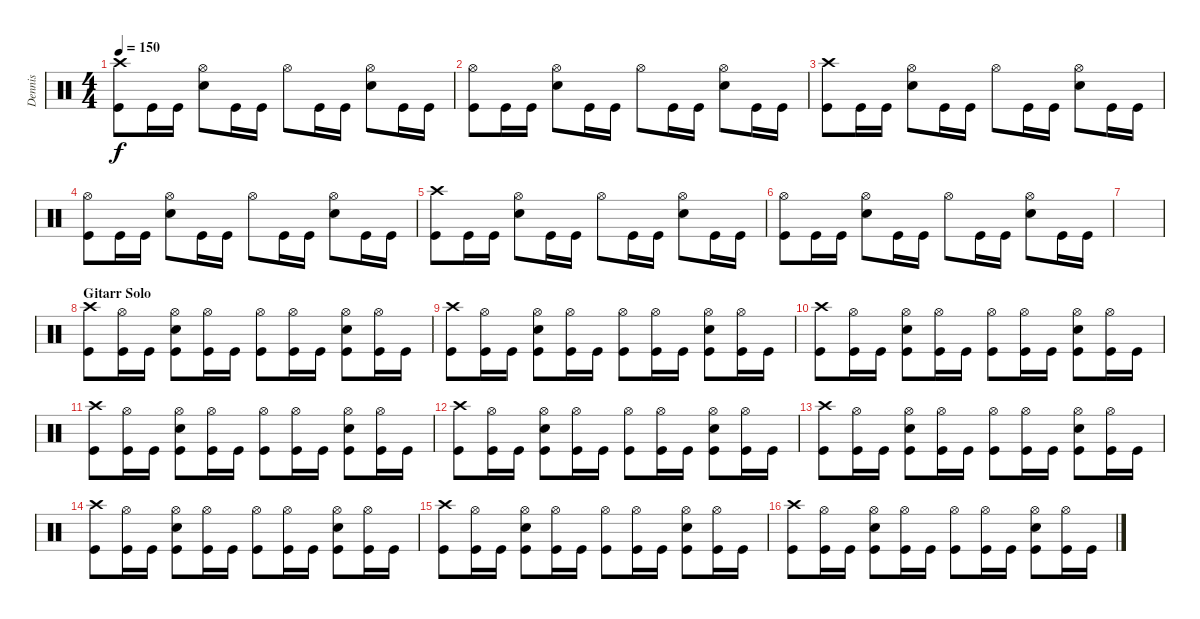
\track ("Dennis" "Dennis") {instrument percussion}
\staff {score}
\articulation defaults
\ts (4 4)
\tempo 150
\clef neutral
\ks c
("Crash high (hit)" "Kick (hit)").8{dy f} "Kick (hit)".16 "Kick (hit)".16 ("Hi-Hat (open)" "Snare (hit) 2").8 "Kick (hit)".16 "Kick (hit)".16 "Hi-Hat (open)".8 "Kick (hit)".16 "Kick (hit)".16 ("Hi-Hat (open)" "Snare (hit) 2").8 "Kick (hit)".16 "Kick (hit)".16 |
("Hi-Hat (open)" "Kick (hit)").8 "Kick (hit)".16 "Kick (hit)".16 ("Hi-Hat (open)" "Snare (hit) 2").8 "Kick (hit)".16 "Kick (hit)".16 "Hi-Hat (open)".8 "Kick (hit)".16 "Kick (hit)".16 ("Hi-Hat (open)" "Snare (hit) 2").8 "Kick (hit)".16 "Kick (hit)".16 |
("Crash high (hit)" "Kick (hit)").8 "Kick (hit)".16 "Kick (hit)".16 ("Hi-Hat (open)" "Snare (hit) 2").8 "Kick (hit)".16 "Kick (hit)".16 "Hi-Hat (open)".8 "Kick (hit)".16 "Kick (hit)".16 ("Hi-Hat (open)" "Snare (hit) 2").8 "Kick (hit)".16 "Kick (hit)".16 |
("Hi-Hat (open)" "Kick (hit)").8 "Kick (hit)".16 "Kick (hit)".16 ("Hi-Hat (open)" "Snare (hit) 2").8 "Kick (hit)".16 "Kick (hit)".16 "Hi-Hat (open)".8 "Kick (hit)".16 "Kick (hit)".16 ("Hi-Hat (open)" "Snare (hit) 2").8 "Kick (hit)".16 "Kick (hit)".16 |
("Crash high (hit)" "Kick (hit)").8 "Kick (hit)".16 "Kick (hit)".16 ("Hi-Hat (open)" "Snare (hit) 2").8 "Kick (hit)".16 "Kick (hit)".16 "Hi-Hat (open)".8 "Kick (hit)".16 "Kick (hit)".16 ("Hi-Hat (open)" "Snare (hit) 2").8 "Kick (hit)".16 "Kick (hit)".16 |
("Hi-Hat (open)" "Kick (hit)").8 "Kick (hit)".16 "Kick (hit)".16 ("Hi-Hat (open)" "Snare (hit) 2").8 "Kick (hit)".16 "Kick (hit)".16 "Hi-Hat (open)".8 "Kick (hit)".16 "Kick (hit)".16 ("Hi-Hat (open)" "Snare (hit) 2").8 "Kick (hit)".16 "Kick (hit)".16 |
|
\section ("" "Gitarr Solo")
("Crash high (hit)" "Kick (hit)").8 ("Hi-Hat (open)" "Kick (hit)").16 "Kick (hit)".16 ("Hi-Hat (open)" "Kick (hit)" "Snare (hit) 2").8 ("Hi-Hat (open)" "Kick (hit)").16 "Kick (hit)".16 ("Hi-Hat (open)" "Kick (hit)").8 ("Hi-Hat (open)" "Kick (hit)").16 "Kick (hit)".16 ("Hi-Hat (open)" "Kick (hit)" "Snare (hit) 2").8 ("Hi-Hat (open)" "Kick (hit)").16 "Kick (hit)".16 |
("Crash high (hit)" "Kick (hit)").8 ("Hi-Hat (open)" "Kick (hit)").16 "Kick (hit)".16 ("Hi-Hat (open)" "Kick (hit)" "Snare (hit) 2").8 ("Hi-Hat (open)" "Kick (hit)").16 "Kick (hit)".16 ("Hi-Hat (open)" "Kick (hit)").8 ("Hi-Hat (open)" "Kick (hit)").16 "Kick (hit)".16 ("Hi-Hat (open)" "Kick (hit)" "Snare (hit) 2").8 ("Hi-Hat (open)" "Kick (hit)").16 "Kick (hit)".16 |
("Crash high (hit)" "Kick (hit)").8 ("Hi-Hat (open)" "Kick (hit)").16 "Kick (hit)".16 ("Hi-Hat (open)" "Kick (hit)" "Snare (hit) 2").8 ("Hi-Hat (open)" "Kick (hit)").16 "Kick (hit)".16 ("Hi-Hat (open)" "Kick (hit)").8 ("Hi-Hat (open)" "Kick (hit)").16 "Kick (hit)".16 ("Hi-Hat (open)" "Kick (hit)" "Snare (hit) 2").8 ("Hi-Hat (open)" "Kick (hit)").16 "Kick (hit)".16 |
("Crash high (hit)" "Kick (hit)").8 ("Hi-Hat (open)" "Kick (hit)").16 "Kick (hit)".16 ("Hi-Hat (open)" "Kick (hit)" "Snare (hit) 2").8 ("Hi-Hat (open)" "Kick (hit)").16 "Kick (hit)".16 ("Hi-Hat (open)" "Kick (hit)").8 ("Hi-Hat (open)" "Kick (hit)").16 "Kick (hit)".16 ("Hi-Hat (open)" "Kick (hit)" "Snare (hit) 2").8 ("Hi-Hat (open)" "Kick (hit)").16 "Kick (hit)".16 |
("Crash high (hit)" "Kick (hit)").8 ("Hi-Hat (open)" "Kick (hit)").16 "Kick (hit)".16 ("Hi-Hat (open)" "Kick (hit)" "Snare (hit) 2").8 ("Hi-Hat (open)" "Kick (hit)").16 "Kick (hit)".16 ("Hi-Hat (open)" "Kick (hit)").8 ("Hi-Hat (open)" "Kick (hit)").16 "Kick (hit)".16 ("Hi-Hat (open)" "Kick (hit)" "Snare (hit) 2").8 ("Hi-Hat (open)" "Kick (hit)").16 "Kick (hit)".16 |
("Crash high (hit)" "Kick (hit)").8 ("Hi-Hat (open)" "Kick (hit)").16 "Kick (hit)".16 ("Hi-Hat (open)" "Kick (hit)" "Snare (hit) 2").8 ("Hi-Hat (open)" "Kick (hit)").16 "Kick (hit)".16 ("Hi-Hat (open)" "Kick (hit)").8 ("Hi-Hat (open)" "Kick (hit)").16 "Kick (hit)".16 ("Hi-Hat (open)" "Kick (hit)" "Snare (hit) 2").8 ("Hi-Hat (open)" "Kick (hit)").16 "Kick (hit)".16 |
("Crash high (hit)" "Kick (hit)").8 ("Hi-Hat (open)" "Kick (hit)").16 "Kick (hit)".16 ("Hi-Hat (open)" "Kick (hit)" "Snare (hit) 2").8 ("Hi-Hat (open)" "Kick (hit)").16 "Kick (hit)".16 ("Hi-Hat (open)" "Kick (hit)").8 ("Hi-Hat (open)" "Kick (hit)").16 "Kick (hit)".16 ("Hi-Hat (open)" "Kick (hit)" "Snare (hit) 2").8 ("Hi-Hat (open)" "Kick (hit)").16 "Kick (hit)".16 |
("Crash high (hit)" "Kick (hit)").8 ("Hi-Hat (open)" "Kick (hit)").16 "Kick (hit)".16 ("Hi-Hat (open)" "Kick (hit)" "Snare (hit) 2").8 ("Hi-Hat (open)" "Kick (hit)").16 "Kick (hit)".16 ("Hi-Hat (open)" "Kick (hit)").8 ("Hi-Hat (open)" "Kick (hit)").16 "Kick (hit)".16 ("Hi-Hat (open)" "Kick (hit)" "Snare (hit) 2").8 ("Hi-Hat (open)" "Kick (hit)").16 "Kick (hit)".16 |
("Crash high (hit)" "Kick (hit)").8 ("Hi-Hat (open)" "Kick (hit)").16 "Kick (hit)".16 ("Hi-Hat (open)" "Kick (hit)" "Snare (hit) 2").8 ("Hi-Hat (open)" "Kick (hit)").16 "Kick (hit)".16 ("Hi-Hat (open)" "Kick (hit)").8 ("Hi-Hat (open)" "Kick (hit)").16 "Kick (hit)".16 ("Hi-Hat (open)" "Kick (hit)" "Snare (hit) 2").8 ("Hi-Hat (open)" "Kick (hit)").16 "Kick (hit)".16
